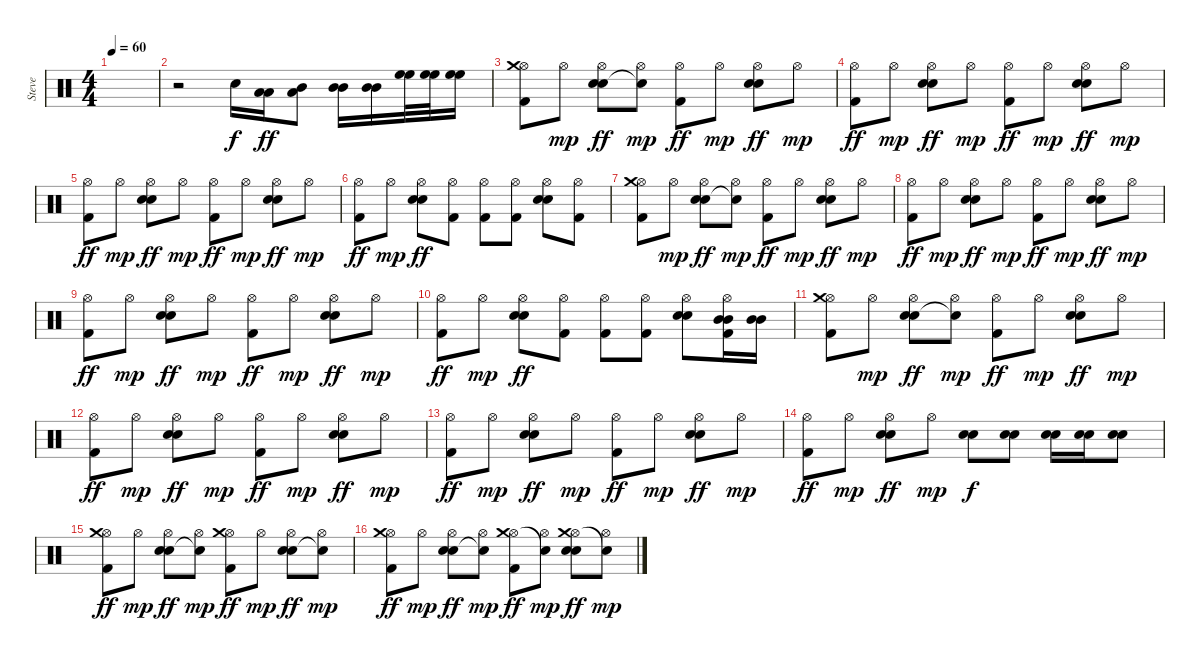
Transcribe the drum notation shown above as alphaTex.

\track ("Steve " "Steve ") {instrument percussion}
\staff {score}
\articulation defaults
\ts (4 4)
\tempo 60
\clef neutral
\ks c
|
r.2 "Snare (hit)".16 ("Low Tom (hit)" "Low Tom (hit)").16{dy ff} ("Low Tom (hit)" "Mid Tom (hit)").8 ("Mid Tom (hit)" "Mid Tom (hit)").16 ("Mid Tom (hit)" "Mid Tom (hit)").16 ("High Floor Tom (hit)" "High Floor Tom (hit)").32 ("High Floor Tom (hit)" "High Floor Tom (hit)").32 ("High Floor Tom (hit)" "High Floor Tom (hit)").16 |
("Hi-Hat (open)" "Crash medium (hit)" "Kick (hit) 2").8 "Hi-Hat (open)".8{dy mp} ("Hi-Hat (open)" "Electric Snare (hit)" "Electric Snare (hit)").8{dy ff} ("Hi-Hat (open)" "Snare (hit)"{t}).8{dy mp} ("Hi-Hat (open)" "Kick (hit) 2").8{dy ff} "Hi-Hat (open)".8{dy mp} ("Hi-Hat (open)" "Electric Snare (hit)" "Electric Snare (hit)").8{dy ff} "Hi-Hat (open)".8{dy mp} |
("Hi-Hat (open)" "Kick (hit) 2").8{dy ff} "Hi-Hat (open)".8{dy mp} ("Hi-Hat (open)" "Electric Snare (hit)" "Electric Snare (hit)").8{dy ff} "Hi-Hat (open)".8{dy mp} ("Hi-Hat (open)" "Kick (hit) 2").8{dy ff} "Hi-Hat (open)".8{dy mp} ("Hi-Hat (open)" "Electric Snare (hit)" "Electric Snare (hit)").8{dy ff} "Hi-Hat (open)".8{dy mp} |
("Hi-Hat (open)" "Kick (hit) 2").8{dy ff} "Hi-Hat (open)".8{dy mp} ("Hi-Hat (open)" "Electric Snare (hit)" "Electric Snare (hit)").8{dy ff} "Hi-Hat (open)".8{dy mp} ("Hi-Hat (open)" "Kick (hit) 2").8{dy ff} "Hi-Hat (open)".8{dy mp} ("Hi-Hat (open)" "Electric Snare (hit)" "Electric Snare (hit)").8{dy ff} "Hi-Hat (open)".8{dy mp} |
("Hi-Hat (open)" "Kick (hit) 2").8{dy ff} "Hi-Hat (open)".8{dy mp} ("Hi-Hat (open)" "Electric Snare (hit)" "Electric Snare (hit)").8{dy ff} ("Hi-Hat (open)" "Kick (hit) 2").8 ("Hi-Hat (open)" "Kick (hit) 2").8 ("Hi-Hat (open)" "Kick (hit) 2").8 ("Hi-Hat (open)" "Electric Snare (hit)" "Electric Snare (hit)").8 ("Hi-Hat (open)" "Kick (hit) 2").8 |
("Hi-Hat (open)" "Crash medium (hit)" "Kick (hit) 2").8 "Hi-Hat (open)".8{dy mp} ("Hi-Hat (open)" "Electric Snare (hit)" "Electric Snare (hit)").8{dy ff} ("Hi-Hat (open)" "Snare (hit)"{t}).8{dy mp} ("Hi-Hat (open)" "Kick (hit) 2").8{dy ff} "Hi-Hat (open)".8{dy mp} ("Hi-Hat (open)" "Electric Snare (hit)" "Electric Snare (hit)").8{dy ff} "Hi-Hat (open)".8{dy mp} |
("Hi-Hat (open)" "Kick (hit) 2").8{dy ff} "Hi-Hat (open)".8{dy mp} ("Hi-Hat (open)" "Electric Snare (hit)" "Electric Snare (hit)").8{dy ff} "Hi-Hat (open)".8{dy mp} ("Hi-Hat (open)" "Kick (hit) 2").8{dy ff} "Hi-Hat (open)".8{dy mp} ("Hi-Hat (open)" "Electric Snare (hit)" "Electric Snare (hit)").8{dy ff} "Hi-Hat (open)".8{dy mp} |
("Hi-Hat (open)" "Kick (hit) 2").8{dy ff} "Hi-Hat (open)".8{dy mp} ("Hi-Hat (open)" "Electric Snare (hit)" "Electric Snare (hit)").8{dy ff} "Hi-Hat (open)".8{dy mp} ("Hi-Hat (open)" "Kick (hit) 2").8{dy ff} "Hi-Hat (open)".8{dy mp} ("Hi-Hat (open)" "Electric Snare (hit)" "Electric Snare (hit)").8{dy ff} "Hi-Hat (open)".8{dy mp} |
("Hi-Hat (open)" "Kick (hit) 2").8{dy ff} "Hi-Hat (open)".8{dy mp} ("Hi-Hat (open)" "Electric Snare (hit)" "Electric Snare (hit)").8{dy ff} ("Hi-Hat (open)" "Kick (hit) 2").8 ("Hi-Hat (open)" "Kick (hit) 2").8 ("Hi-Hat (open)" "Kick (hit) 2").8 ("Hi-Hat (open)" "Electric Snare (hit)" "Electric Snare (hit)").8 ("Hi-Hat (open)" "Mid Tom (hit)" "Mid Tom (hit)" "Kick (hit) 2").16 ("Mid Tom (hit)" "Mid Tom (hit)").16 |
("Hi-Hat (open)" "Crash medium (hit)" "Kick (hit) 2").8 "Hi-Hat (open)".8{dy mp} ("Hi-Hat (open)" "Electric Snare (hit)" "Electric Snare (hit)").8{dy ff} ("Hi-Hat (open)" "Snare (hit)"{t}).8{dy mp} ("Hi-Hat (open)" "Kick (hit) 2").8{dy ff} "Hi-Hat (open)".8{dy mp} ("Hi-Hat (open)" "Electric Snare (hit)" "Electric Snare (hit)").8{dy ff} "Hi-Hat (open)".8{dy mp} |
("Hi-Hat (open)" "Kick (hit) 2").8{dy ff} "Hi-Hat (open)".8{dy mp} ("Hi-Hat (open)" "Electric Snare (hit)" "Electric Snare (hit)").8{dy ff} "Hi-Hat (open)".8{dy mp} ("Hi-Hat (open)" "Kick (hit) 2").8{dy ff} "Hi-Hat (open)".8{dy mp} ("Hi-Hat (open)" "Electric Snare (hit)" "Electric Snare (hit)").8{dy ff} "Hi-Hat (open)".8{dy mp} |
("Hi-Hat (open)" "Kick (hit) 2").8{dy ff} "Hi-Hat (open)".8{dy mp} ("Hi-Hat (open)" "Electric Snare (hit)" "Electric Snare (hit)").8{dy ff} "Hi-Hat (open)".8{dy mp} ("Hi-Hat (open)" "Kick (hit) 2").8{dy ff} "Hi-Hat (open)".8{dy mp} ("Hi-Hat (open)" "Electric Snare (hit)" "Electric Snare (hit)").8{dy ff} "Hi-Hat (open)".8{dy mp} |
("Hi-Hat (open)" "Kick (hit) 2").8{dy ff} "Hi-Hat (open)".8{dy mp} ("Hi-Hat (open)" "Electric Snare (hit)" "Electric Snare (hit)").8{dy ff} "Hi-Hat (open)".8{dy mp} ("Electric Snare (hit)" "Electric Snare (hit)").8{dy f} ("Electric Snare (hit)" "Electric Snare (hit)").8 ("Electric Snare (hit)" "Electric Snare (hit)").16 ("Electric Snare (hit)" "Electric Snare (hit)").16 ("Electric Snare (hit)" "Electric Snare (hit)").8 |
("Hi-Hat (open)" "Crash medium (hit)" "Kick (hit) 2").8{dy ff} "Hi-Hat (open)".8{dy mp} ("Hi-Hat (open)" "Electric Snare (hit)" "Electric Snare (hit)").8{dy ff} ("Hi-Hat (open)" "Snare (hit)"{t}).8{dy mp} ("Hi-Hat (open)" "Crash medium (hit)" "Kick (hit) 2").8{dy ff} "Hi-Hat (open)".8{dy mp} ("Hi-Hat (open)" "Electric Snare (hit)" "Electric Snare (hit)").8{dy ff} ("Hi-Hat (open)" "Snare (hit)"{t}).8{dy mp} |
("Hi-Hat (open)" "Crash medium (hit)" "Kick (hit) 2").8{dy ff} "Hi-Hat (open)".8{dy mp} ("Hi-Hat (open)" "Electric Snare (hit)" "Electric Snare (hit)").8{dy ff} ("Hi-Hat (open)" "Snare (hit)"{t}).8{dy mp} ("Hi-Hat (open)" "Crash medium (hit)" "Kick (hit) 2").8{dy ff} ("Hi-Hat (open)" "Snare (hit)"{t}).8{dy mp} ("Hi-Hat (open)" "Crash medium (hit)" "Electric Snare (hit)" "Electric Snare (hit)").8{dy ff} ("Hi-Hat (open)" "Snare (hit)"{t}).8{dy mp}
